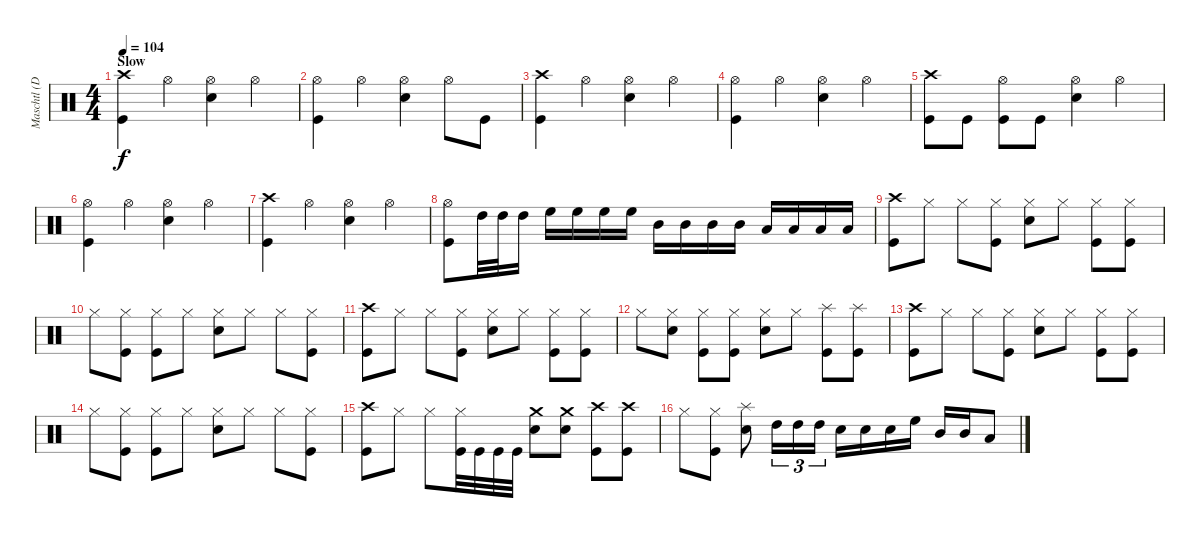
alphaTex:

\track ("Maschtl (Drums)" "Maschtl (D") {instrument percussion}
\staff {score}
\articulation defaults
\ts (4 4)
\section ("" "Slow")
\tempo 104
\clef neutral
\ks c
("Crash high (hit)" "Kick (hit)").4{dy f} "Hi-Hat (open)".4 ("Hi-Hat (open)" "Electric Snare (hit)").4 "Hi-Hat (open)".4 |
("Hi-Hat (open)" "Kick (hit)").4 "Hi-Hat (open)".4 ("Hi-Hat (open)" "Electric Snare (hit)").4 "Hi-Hat (open)".8 "Kick (hit)".8 |
("Crash high (hit)" "Kick (hit)").4 "Hi-Hat (open)".4 ("Hi-Hat (open)" "Electric Snare (hit)").4 "Hi-Hat (open)".4 |
("Hi-Hat (open)" "Kick (hit)").4 "Hi-Hat (open)".4 ("Hi-Hat (open)" "Electric Snare (hit)").4 "Hi-Hat (open)".4 |
("Crash high (hit)" "Kick (hit)").8 "Kick (hit)".8 ("Hi-Hat (open)" "Kick (hit)").8 "Kick (hit)".8 ("Hi-Hat (open)" "Electric Snare (hit)").4 "Hi-Hat (open)".4 |
("Hi-Hat (open)" "Kick (hit)").4 "Hi-Hat (open)".4 ("Hi-Hat (open)" "Electric Snare (hit)").4 "Hi-Hat (open)".4 |
("Crash high (hit)" "Kick (hit)").4 "Hi-Hat (open)".4 ("Hi-Hat (open)" "Electric Snare (hit)").4 "Hi-Hat (open)".4 |
("Hi-Hat (open)" "Kick (hit)").8 "High Tom (hit)".32 "High Tom (hit)".32 "High Tom (hit)".16 "High Floor Tom (hit)".16 "High Floor Tom (hit)".16 "High Floor Tom (hit)".16 "High Floor Tom (hit)".16 "Mid Tom (hit)".16 "Mid Tom (hit)".16 "Mid Tom (hit)".16 "Mid Tom (hit)".16 "Low Tom (hit)".16 "Low Tom (hit)".16 "Low Tom (hit)".16 "Low Tom (hit)".16 |
("Crash high (hit)" "Kick (hit)").8 "Hi-Hat (closed)".8 "Hi-Hat (closed)".8 ("Hi-Hat (closed)" "Kick (hit)").8 ("Hi-Hat (closed)" "Electric Snare (hit)").8 "Hi-Hat (closed)".8 ("Hi-Hat (closed)" "Kick (hit)").8 ("Hi-Hat (closed)" "Kick (hit)").8 |
"Hi-Hat (closed)".8 ("Hi-Hat (closed)" "Kick (hit)").8 ("Hi-Hat (closed)" "Kick (hit)").8 "Hi-Hat (closed)".8 ("Hi-Hat (closed)" "Electric Snare (hit)").8 "Hi-Hat (closed)".8 "Hi-Hat (closed)".8 ("Hi-Hat (closed)" "Kick (hit)").8 |
("Crash high (hit)" "Kick (hit)").8 "Hi-Hat (closed)".8 "Hi-Hat (closed)".8 ("Hi-Hat (closed)" "Kick (hit)").8 ("Hi-Hat (closed)" "Electric Snare (hit)").8 "Hi-Hat (closed)".8 ("Hi-Hat (closed)" "Kick (hit)").8 ("Hi-Hat (closed)" "Kick (hit)").8 |
"Hi-Hat (closed)".8 ("Hi-Hat (closed)" "Electric Snare (hit)").8 ("Hi-Hat (closed)" "Kick (hit)").8 ("Hi-Hat (closed)" "Kick (hit)").8 ("Hi-Hat (closed)" "Electric Snare (hit)").8 "Hi-Hat (closed)".8 ("Splash (hit)" "Kick (hit)").8 ("Splash (hit)" "Kick (hit)").8 |
("Crash high (hit)" "Kick (hit)").8 "Hi-Hat (closed)".8 "Hi-Hat (closed)".8 ("Hi-Hat (closed)" "Kick (hit)").8 ("Hi-Hat (closed)" "Electric Snare (hit)").8 "Hi-Hat (closed)".8 ("Hi-Hat (closed)" "Kick (hit)").8 ("Hi-Hat (closed)" "Kick (hit)").8 |
"Hi-Hat (closed)".8 ("Hi-Hat (closed)" "Kick (hit)").8 ("Hi-Hat (closed)" "Kick (hit)").8 "Hi-Hat (closed)".8 ("Hi-Hat (closed)" "Electric Snare (hit)").8 "Hi-Hat (closed)".8 "Hi-Hat (closed)".8 ("Hi-Hat (closed)" "Kick (hit)").8 |
("Crash high (hit)" "Kick (hit)").8 "Hi-Hat (closed)".8 "Hi-Hat (closed)".8 ("Hi-Hat (closed)" "Kick (hit)").32 "Kick (hit)".32 "Kick (hit)".32 "Kick (hit)".32 ("Crash medium (hit)" "Electric Snare (hit)").8 ("Crash medium (hit)" "Electric Snare (hit)").8 ("Crash high (hit)" "Kick (hit)").8 ("Crash high (hit)" "Kick (hit)").8 |
"Hi-Hat (closed)".8 ("Hi-Hat (closed)" "Kick (hit)").8 ("Splash (hit)" "Electric Snare (hit)").8 "High Tom (hit)".16{tu (3 2)} "High Tom (hit)".16{tu (3 2)} "High Tom (hit)".16{tu (3 2)} "Electric Snare (hit)".16 "Electric Snare (hit)".16 "Electric Snare (hit)".16 "High Floor Tom (hit)".16 "Mid Tom (hit)".16 "Mid Tom (hit)".16 "Low Tom (hit)".8
